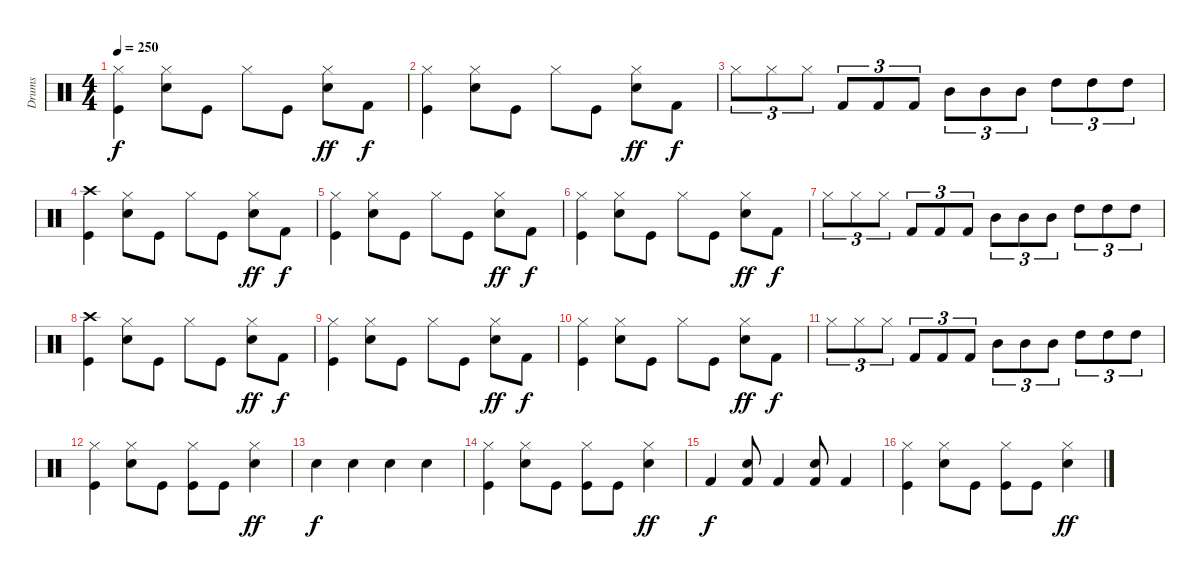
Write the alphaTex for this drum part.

\track ("Drums" "Drums") {instrument percussion}
\staff {score}
\articulation defaults
\ts (4 4)
\tempo 250
\clef neutral
\ks c
("Hi-Hat (closed)" "Kick (hit)").4{dy f} ("Hi-Hat (closed)" "Snare (hit) 2").8 "Kick (hit)".8 "Hi-Hat (closed)".8 "Kick (hit)".8 ("Hi-Hat (closed)" "Snare (hit) 2").8{dy ff} "Kick (hit) 2".8{dy f} |
("Hi-Hat (closed)" "Kick (hit)").4 ("Hi-Hat (closed)" "Snare (hit) 2").8 "Kick (hit)".8 "Hi-Hat (closed)".8 "Kick (hit)".8 ("Hi-Hat (closed)" "Snare (hit) 2").8{dy ff} "Kick (hit) 2".8{dy f} |
"Hi-Hat (closed)".8{tu (3 2)} "Hi-Hat (closed)".8{tu (3 2)} "Hi-Hat (closed)".8{tu (3 2)} "Kick (hit) 2".8{tu (3 2)} "Kick (hit) 2".8{tu (3 2)} "Kick (hit) 2".8{tu (3 2)} "Mid Tom (hit)".8{tu (3 2)} "Mid Tom (hit)".8{tu (3 2)} "Mid Tom (hit)".8{tu (3 2)} "High Tom (hit)".8{tu (3 2)} "High Tom (hit)".8{tu (3 2)} "High Tom (hit)".8{tu (3 2)} |
("Crash high (hit)" "Kick (hit)").4 ("Hi-Hat (closed)" "Snare (hit) 2").8 "Kick (hit)".8 "Hi-Hat (closed)".8 "Kick (hit)".8 ("Hi-Hat (closed)" "Snare (hit) 2").8{dy ff} "Kick (hit) 2".8{dy f} |
("Hi-Hat (closed)" "Kick (hit)").4 ("Hi-Hat (closed)" "Snare (hit) 2").8 "Kick (hit)".8 "Hi-Hat (closed)".8 "Kick (hit)".8 ("Hi-Hat (closed)" "Snare (hit) 2").8{dy ff} "Kick (hit) 2".8{dy f} |
("Hi-Hat (closed)" "Kick (hit)").4 ("Hi-Hat (closed)" "Snare (hit) 2").8 "Kick (hit)".8 "Hi-Hat (closed)".8 "Kick (hit)".8 ("Hi-Hat (closed)" "Snare (hit) 2").8{dy ff} "Kick (hit) 2".8{dy f} |
"Hi-Hat (closed)".8{tu (3 2)} "Hi-Hat (closed)".8{tu (3 2)} "Hi-Hat (closed)".8{tu (3 2)} "Kick (hit) 2".8{tu (3 2)} "Kick (hit) 2".8{tu (3 2)} "Kick (hit) 2".8{tu (3 2)} "Mid Tom (hit)".8{tu (3 2)} "Mid Tom (hit)".8{tu (3 2)} "Mid Tom (hit)".8{tu (3 2)} "High Tom (hit)".8{tu (3 2)} "High Tom (hit)".8{tu (3 2)} "High Tom (hit)".8{tu (3 2)} |
("Crash high (hit)" "Kick (hit)").4 ("Hi-Hat (closed)" "Snare (hit) 2").8 "Kick (hit)".8 "Hi-Hat (closed)".8 "Kick (hit)".8 ("Hi-Hat (closed)" "Snare (hit) 2").8{dy ff} "Kick (hit) 2".8{dy f} |
("Hi-Hat (closed)" "Kick (hit)").4 ("Hi-Hat (closed)" "Snare (hit) 2").8 "Kick (hit)".8 "Hi-Hat (closed)".8 "Kick (hit)".8 ("Hi-Hat (closed)" "Snare (hit) 2").8{dy ff} "Kick (hit) 2".8{dy f} |
("Hi-Hat (closed)" "Kick (hit)").4 ("Hi-Hat (closed)" "Snare (hit) 2").8 "Kick (hit)".8 "Hi-Hat (closed)".8 "Kick (hit)".8 ("Hi-Hat (closed)" "Snare (hit) 2").8{dy ff} "Kick (hit) 2".8{dy f} |
"Hi-Hat (closed)".8{tu (3 2)} "Hi-Hat (closed)".8{tu (3 2)} "Hi-Hat (closed)".8{tu (3 2)} "Kick (hit) 2".8{tu (3 2)} "Kick (hit) 2".8{tu (3 2)} "Kick (hit) 2".8{tu (3 2)} "Mid Tom (hit)".8{tu (3 2)} "Mid Tom (hit)".8{tu (3 2)} "Mid Tom (hit)".8{tu (3 2)} "High Tom (hit)".8{tu (3 2)} "High Tom (hit)".8{tu (3 2)} "High Tom (hit)".8{tu (3 2)} |
("Hi-Hat (closed)" "Kick (hit)").4 ("Hi-Hat (closed)" "Snare (hit) 2").8 "Kick (hit)".8 ("Hi-Hat (closed)" "Kick (hit)").8 "Kick (hit)".8 ("Hi-Hat (closed)" "Snare (hit) 2").4{dy ff} |
"Electric Snare (hit)".4{dy f} "Electric Snare (hit)".4 "Electric Snare (hit)".4 "Electric Snare (hit)".4 |
("Hi-Hat (closed)" "Kick (hit)").4 ("Hi-Hat (closed)" "Snare (hit) 2").8 "Kick (hit)".8 ("Hi-Hat (closed)" "Kick (hit)").8 "Kick (hit)".8 ("Hi-Hat (closed)" "Snare (hit) 2").4{dy ff} |
"Kick (hit) 2".4{dy f} ("Kick (hit) 2" "Electric Snare (hit)").8 "Kick (hit) 2".4 ("Kick (hit) 2" "Electric Snare (hit)").8 "Kick (hit) 2".4 |
("Hi-Hat (closed)" "Kick (hit)").4 ("Hi-Hat (closed)" "Snare (hit) 2").8 "Kick (hit)".8 ("Hi-Hat (closed)" "Kick (hit)").8 "Kick (hit)".8 ("Hi-Hat (closed)" "Snare (hit) 2").4{dy ff}
